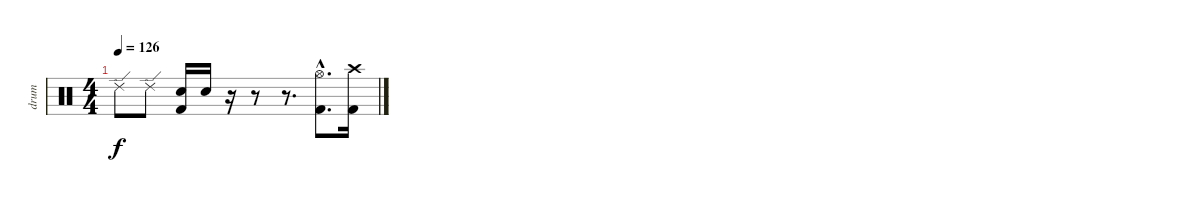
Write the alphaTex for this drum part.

\track ("drum" "drum") {instrument percussion}
\staff {score}
\articulation defaults
\ts (4 4)
\tempo 126
\clef neutral
\ks c "Ride (edge) 2".8{dy f} "Ride (edge) 2".8
("Electric Snare (hit)" "Kick (hit) 2").16 "Electric Snare (hit)".16 r.16 r.8 r.8{d} ("Hi-Hat (open)"{hac} "Kick (hit) 2"{hac}).8{d} ("Crash high (hit)" "Kick (hit) 2").16
